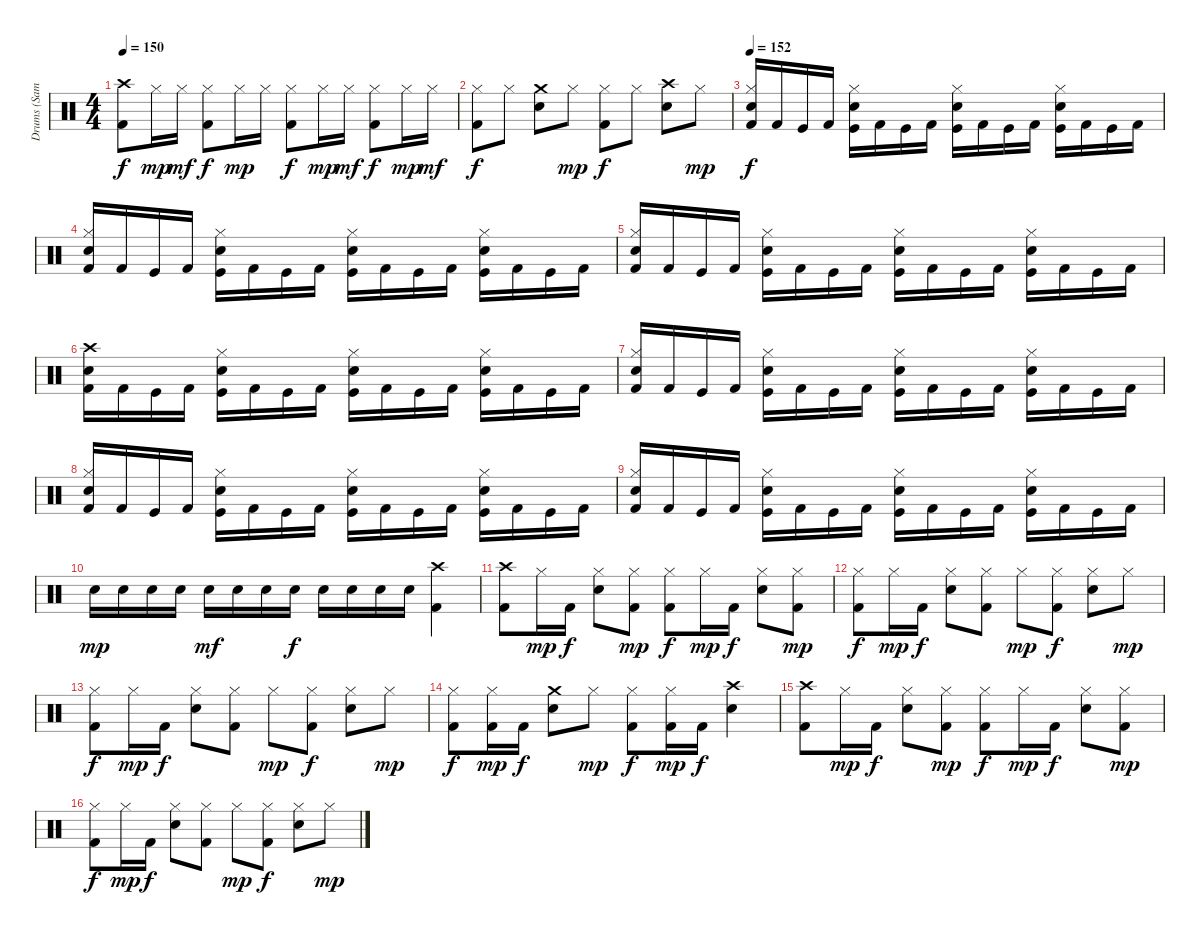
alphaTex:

\track ("Drums (Samuelson)" "Drums (Sam") {instrument percussion}
\staff
\articulation defaults
\ts (4 4)
\tempo 150
\clef neutral
\ks c
("Crash high (hit)" "Kick (hit) 2").8{dy f} "Hi-Hat (closed)".16{dy mp} "Hi-Hat (closed)".16{dy mf} ("Hi-Hat (closed)" "Kick (hit) 2").8{dy f} "Hi-Hat (closed)".16{dy mp} "Hi-Hat (closed)".16 ("Hi-Hat (closed)" "Kick (hit) 2").8{dy f} "Hi-Hat (closed)".16{dy mp} "Hi-Hat (closed)".16{dy mf} ("Hi-Hat (closed)" "Kick (hit) 2").8{dy f} "Hi-Hat (closed)".16{dy mp} "Hi-Hat (closed)".16{dy mf} |
("Hi-Hat (closed)" "Kick (hit) 2").8{dy f} "Hi-Hat (closed)".8 ("Crash medium (hit)" "Electric Snare (hit)").8 "Hi-Hat (closed)".8{dy mp} ("Hi-Hat (closed)" "Kick (hit) 2").8{dy f} "Hi-Hat (closed)".8 ("Crash high (hit)" "Electric Snare (hit)").8 "Hi-Hat (closed)".8{dy mp} |
\tempo 152
("Hi-Hat (closed)" "Electric Snare (hit)" "Kick (hit) 2").16{dy f} "Kick (hit) 2".16 "Kick (hit)".16 "Kick (hit) 2".16 ("Hi-Hat (closed)" "Electric Snare (hit)" "Kick (hit)").16 "Kick (hit) 2".16 "Kick (hit)".16 "Kick (hit) 2".16 ("Hi-Hat (closed)" "Electric Snare (hit)" "Kick (hit)").16 "Kick (hit) 2".16 "Kick (hit)".16 "Kick (hit) 2".16 ("Hi-Hat (closed)" "Electric Snare (hit)" "Kick (hit)").16 "Kick (hit) 2".16 "Kick (hit)".16 "Kick (hit) 2".16 |
("Hi-Hat (closed)" "Electric Snare (hit)" "Kick (hit) 2").16 "Kick (hit) 2".16 "Kick (hit)".16 "Kick (hit) 2".16 ("Hi-Hat (closed)" "Electric Snare (hit)" "Kick (hit)").16 "Kick (hit) 2".16 "Kick (hit)".16 "Kick (hit) 2".16 ("Hi-Hat (closed)" "Electric Snare (hit)" "Kick (hit)").16 "Kick (hit) 2".16 "Kick (hit)".16 "Kick (hit) 2".16 ("Hi-Hat (closed)" "Electric Snare (hit)" "Kick (hit)").16 "Kick (hit) 2".16 "Kick (hit)".16 "Kick (hit) 2".16 |
("Hi-Hat (closed)" "Electric Snare (hit)" "Kick (hit) 2").16 "Kick (hit) 2".16 "Kick (hit)".16 "Kick (hit) 2".16 ("Hi-Hat (closed)" "Electric Snare (hit)" "Kick (hit)").16 "Kick (hit) 2".16 "Kick (hit)".16 "Kick (hit) 2".16 ("Hi-Hat (closed)" "Electric Snare (hit)" "Kick (hit)").16 "Kick (hit) 2".16 "Kick (hit)".16 "Kick (hit) 2".16 ("Hi-Hat (closed)" "Electric Snare (hit)" "Kick (hit)").16 "Kick (hit) 2".16 "Kick (hit)".16 "Kick (hit) 2".16 |
("Crash high (hit)" "Electric Snare (hit)" "Kick (hit) 2").16 "Kick (hit) 2".16 "Kick (hit)".16 "Kick (hit) 2".16 ("Hi-Hat (closed)" "Electric Snare (hit)" "Kick (hit)").16 "Kick (hit) 2".16 "Kick (hit)".16 "Kick (hit) 2".16 ("Hi-Hat (closed)" "Electric Snare (hit)" "Kick (hit)").16 "Kick (hit) 2".16 "Kick (hit)".16 "Kick (hit) 2".16 ("Hi-Hat (closed)" "Electric Snare (hit)" "Kick (hit)").16 "Kick (hit) 2".16 "Kick (hit)".16 "Kick (hit) 2".16 |
("Hi-Hat (closed)" "Electric Snare (hit)" "Kick (hit) 2").16 "Kick (hit) 2".16 "Kick (hit)".16 "Kick (hit) 2".16 ("Hi-Hat (closed)" "Electric Snare (hit)" "Kick (hit)").16 "Kick (hit) 2".16 "Kick (hit)".16 "Kick (hit) 2".16 ("Hi-Hat (closed)" "Electric Snare (hit)" "Kick (hit)").16 "Kick (hit) 2".16 "Kick (hit)".16 "Kick (hit) 2".16 ("Hi-Hat (closed)" "Electric Snare (hit)" "Kick (hit)").16 "Kick (hit) 2".16 "Kick (hit)".16 "Kick (hit) 2".16 |
("Hi-Hat (closed)" "Electric Snare (hit)" "Kick (hit) 2").16 "Kick (hit) 2".16 "Kick (hit)".16 "Kick (hit) 2".16 ("Hi-Hat (closed)" "Electric Snare (hit)" "Kick (hit)").16 "Kick (hit) 2".16 "Kick (hit)".16 "Kick (hit) 2".16 ("Hi-Hat (closed)" "Electric Snare (hit)" "Kick (hit)").16 "Kick (hit) 2".16 "Kick (hit)".16 "Kick (hit) 2".16 ("Hi-Hat (closed)" "Electric Snare (hit)" "Kick (hit)").16 "Kick (hit) 2".16 "Kick (hit)".16 "Kick (hit) 2".16 |
("Hi-Hat (closed)" "Electric Snare (hit)" "Kick (hit) 2").16 "Kick (hit) 2".16 "Kick (hit)".16 "Kick (hit) 2".16 ("Hi-Hat (closed)" "Electric Snare (hit)" "Kick (hit)").16 "Kick (hit) 2".16 "Kick (hit)".16 "Kick (hit) 2".16 ("Hi-Hat (closed)" "Electric Snare (hit)" "Kick (hit)").16 "Kick (hit) 2".16 "Kick (hit)".16 "Kick (hit) 2".16 ("Hi-Hat (closed)" "Electric Snare (hit)" "Kick (hit)").16 "Kick (hit) 2".16 "Kick (hit)".16 "Kick (hit) 2".16 |
"Electric Snare (hit)".16{dy mp} "Electric Snare (hit)".16 "Electric Snare (hit)".16 "Electric Snare (hit)".16 "Electric Snare (hit)".16{dy mf} "Electric Snare (hit)".16 "Electric Snare (hit)".16 "Electric Snare (hit)".16{dy f} "Electric Snare (hit)".16 "Electric Snare (hit)".16 "Electric Snare (hit)".16 "Electric Snare (hit)".16 ("Crash high (hit)" "Kick (hit) 2").4 |
("Crash high (hit)" "Kick (hit) 2").8 "Hi-Hat (closed)".16{dy mp} "Kick (hit) 2".16{dy f} ("Hi-Hat (closed)" "Electric Snare (hit)").8 ("Hi-Hat (closed)" "Kick (hit) 2").8{dy mp} ("Hi-Hat (closed)" "Kick (hit) 2").8{dy f} "Hi-Hat (closed)".16{dy mp} "Kick (hit) 2".16{dy f} ("Hi-Hat (closed)" "Electric Snare (hit)").8 ("Hi-Hat (closed)" "Kick (hit) 2").8{dy mp} |
("Hi-Hat (closed)" "Kick (hit) 2").8{dy f} "Hi-Hat (closed)".16{dy mp} "Kick (hit) 2".16{dy f} ("Hi-Hat (closed)" "Electric Snare (hit)").8 ("Hi-Hat (closed)" "Kick (hit) 2").8 "Hi-Hat (closed)".8{dy mp} ("Hi-Hat (closed)" "Kick (hit) 2").8{dy f} ("Hi-Hat (closed)" "Electric Snare (hit)").8 "Hi-Hat (closed)".8{dy mp} |
("Hi-Hat (closed)" "Kick (hit) 2").8{dy f} "Hi-Hat (closed)".16{dy mp} "Kick (hit) 2".16{dy f} ("Hi-Hat (closed)" "Electric Snare (hit)").8 ("Hi-Hat (closed)" "Kick (hit) 2").8 "Hi-Hat (closed)".8{dy mp} ("Hi-Hat (closed)" "Kick (hit) 2").8{dy f} ("Hi-Hat (closed)" "Electric Snare (hit)").8 "Hi-Hat (closed)".8{dy mp} |
("Hi-Hat (closed)" "Kick (hit) 2").8{dy f} ("Hi-Hat (closed)" "Kick (hit) 2").16{dy mp} "Kick (hit) 2".16{dy f} ("Crash medium (hit)" "Electric Snare (hit)").8 "Hi-Hat (closed)".8{dy mp} ("Hi-Hat (closed)" "Kick (hit) 2").8{dy f} ("Hi-Hat (closed)" "Kick (hit) 2").16{dy mp} "Kick (hit) 2".16{dy f} ("Crash high (hit)" "Electric Snare (hit)").4 |
("Crash high (hit)" "Kick (hit) 2").8 "Hi-Hat (closed)".16{dy mp} "Kick (hit) 2".16{dy f} ("Hi-Hat (closed)" "Electric Snare (hit)").8 ("Hi-Hat (closed)" "Kick (hit) 2").8{dy mp} ("Hi-Hat (closed)" "Kick (hit) 2").8{dy f} "Hi-Hat (closed)".16{dy mp} "Kick (hit) 2".16{dy f} ("Hi-Hat (closed)" "Electric Snare (hit)").8 ("Hi-Hat (closed)" "Kick (hit) 2").8{dy mp} |
("Hi-Hat (closed)" "Kick (hit) 2").8{dy f} "Hi-Hat (closed)".16{dy mp} "Kick (hit) 2".16{dy f} ("Hi-Hat (closed)" "Electric Snare (hit)").8 ("Hi-Hat (closed)" "Kick (hit) 2").8 "Hi-Hat (closed)".8{dy mp} ("Hi-Hat (closed)" "Kick (hit) 2").8{dy f} ("Hi-Hat (closed)" "Electric Snare (hit)").8 "Hi-Hat (closed)".8{dy mp}
